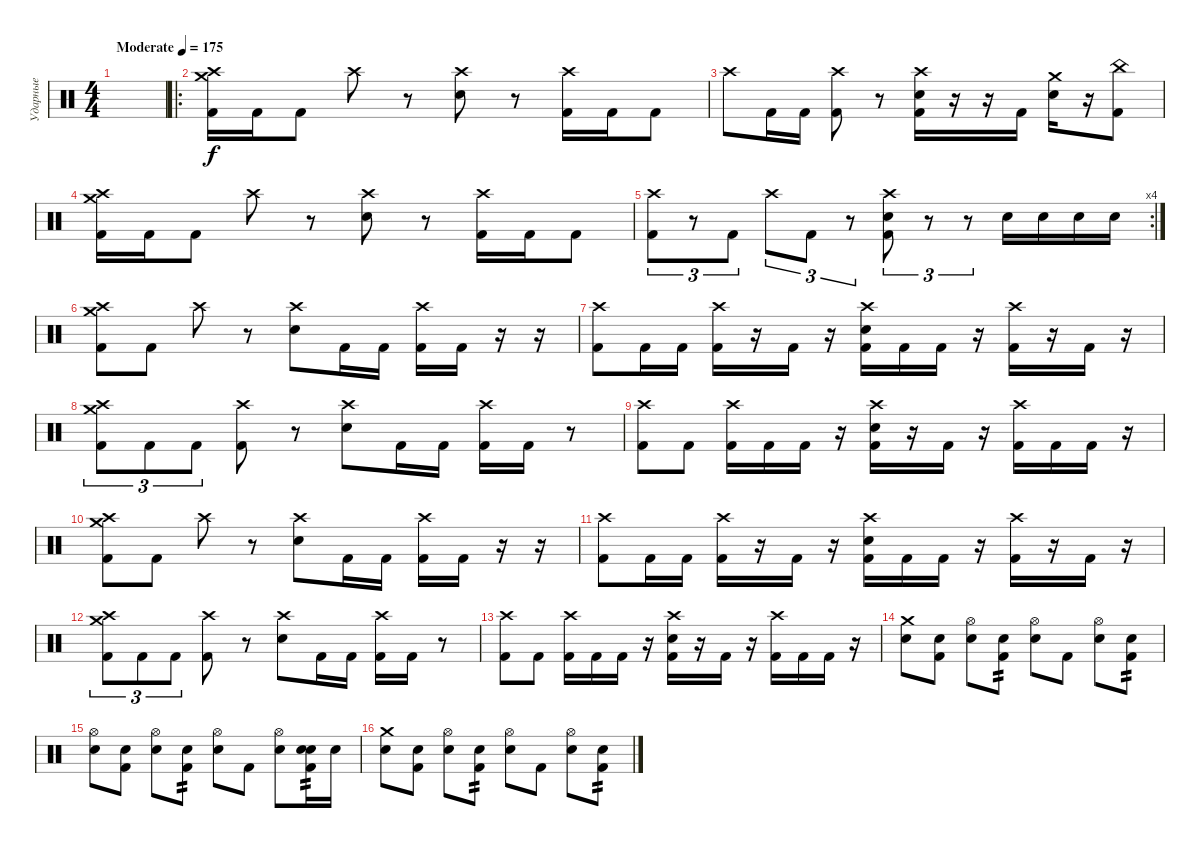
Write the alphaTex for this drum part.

\track ("Ударные" "Ударные") {instrument percussion}
\staff {score}
\articulation defaults
\ts (4 4)
\tempo (175 "Moderate")
\clef neutral
\ks c
|
\ro
("Crash medium (hit)" "Crash high (hit)" "Kick (hit) 2").16 "Kick (hit) 2".16 "Kick (hit) 2".8 "Crash high (hit)".8 r.8 ("Crash high (hit)" "Snare (hit) 2").8 r.8 ("Crash high (hit)" "Kick (hit) 2").16 "Kick (hit) 2".16 "Kick (hit) 2".8 |
"Crash high (hit)".8 "Kick (hit) 2".16 "Kick (hit) 2".16 ("Crash high (hit)" "Kick (hit) 2").8 r.8 ("Crash high (hit)" "Snare (hit) 2" "Kick (hit) 2").16 r.16 r.16 "Kick (hit) 2".16 ("Crash medium (hit)" "Snare (hit) 2").16 r.16 ("China (hit)" "Kick (hit) 2").8 |
("Crash medium (hit)" "Crash high (hit)" "Kick (hit) 2").16 "Kick (hit) 2".16 "Kick (hit) 2".8 "Crash high (hit)".8 r.8 ("Crash high (hit)" "Snare (hit) 2").8 r.8 ("Crash high (hit)" "Kick (hit) 2").16 "Kick (hit) 2".16 "Kick (hit) 2".8 |
\rc 4
("Crash high (hit)" "Kick (hit) 2").8{tu (3 2)} r.8{tu (3 2)} "Kick (hit) 2".8{tu (3 2)} "Crash high (hit)".8{tu (3 2)} "Kick (hit) 2".8{tu (3 2)} r.8{tu (3 2)} ("Crash high (hit)" "Snare (hit) 2" "Kick (hit) 2").8{tu (3 2)} r.8{tu (3 2)} r.8{tu (3 2)} "Snare (hit) 2".16 "Snare (hit) 2".16 "Snare (hit) 2".16 "Snare (hit) 2".16 |
("Crash high (hit)" "Crash medium (hit)" "Kick (hit) 2").8 "Kick (hit) 2".8 "Crash high (hit)".8 r.8 ("Crash high (hit)" "Snare (hit) 2").8 "Kick (hit) 2".16 "Kick (hit) 2".16 ("Crash high (hit)" "Kick (hit) 2").16 "Kick (hit) 2".16 r.16 r.16 |
("Crash high (hit)" "Kick (hit) 2").8 "Kick (hit) 2".16 "Kick (hit) 2".16 ("Crash high (hit)" "Kick (hit) 2").16 r.16 "Kick (hit) 2".16 r.16 ("Crash high (hit)" "Snare (hit) 2" "Kick (hit) 2").16 "Kick (hit) 2".16 "Kick (hit) 2".16 r.16 ("Crash high (hit)" "Kick (hit) 2").16 r.16 "Kick (hit) 2".16 r.16 |
("Crash medium (hit)" "Crash high (hit)" "Kick (hit) 2").8{tu (3 2)} "Kick (hit) 2".8{tu (3 2)} "Kick (hit) 2".8{tu (3 2)} ("Crash high (hit)" "Kick (hit) 2").8 r.8 ("Crash high (hit)" "Snare (hit) 2").8 "Kick (hit) 2".16 "Kick (hit) 2".16 ("Crash high (hit)" "Kick (hit) 2").16 "Kick (hit) 2".16 r.8 |
("Crash high (hit)" "Kick (hit) 2").8 "Kick (hit) 2".8 ("Crash high (hit)" "Kick (hit) 2").16 "Kick (hit) 2".16 "Kick (hit) 2".16 r.16 ("Crash high (hit)" "Snare (hit) 2" "Kick (hit) 2").16 r.16 "Kick (hit) 2".16 r.16 ("Crash high (hit)" "Kick (hit) 2").16 "Kick (hit) 2".16 "Kick (hit) 2".16 r.16 |
("Crash high (hit)" "Crash medium (hit)" "Kick (hit) 2").8 "Kick (hit) 2".8 "Crash high (hit)".8 r.8 ("Crash high (hit)" "Snare (hit) 2").8 "Kick (hit) 2".16 "Kick (hit) 2".16 ("Crash high (hit)" "Kick (hit) 2").16 "Kick (hit) 2".16 r.16 r.16 |
("Crash high (hit)" "Kick (hit) 2").8 "Kick (hit) 2".16 "Kick (hit) 2".16 ("Crash high (hit)" "Kick (hit) 2").16 r.16 "Kick (hit) 2".16 r.16 ("Crash high (hit)" "Snare (hit) 2" "Kick (hit) 2").16 "Kick (hit) 2".16 "Kick (hit) 2".16 r.16 ("Crash high (hit)" "Kick (hit) 2").16 r.16 "Kick (hit) 2".16 r.16 |
("Crash medium (hit)" "Crash high (hit)" "Kick (hit) 2").8{tu (3 2)} "Kick (hit) 2".8{tu (3 2)} "Kick (hit) 2".8{tu (3 2)} ("Crash high (hit)" "Kick (hit) 2").8 r.8 ("Crash high (hit)" "Snare (hit) 2").8 "Kick (hit) 2".16 "Kick (hit) 2".16 ("Crash high (hit)" "Kick (hit) 2").16 "Kick (hit) 2".16 r.8 |
("Crash high (hit)" "Kick (hit) 2").8 "Kick (hit) 2".8 ("Crash high (hit)" "Kick (hit) 2").16 "Kick (hit) 2".16 "Kick (hit) 2".16 r.16 ("Crash high (hit)" "Snare (hit) 2" "Kick (hit) 2").16 r.16 "Kick (hit) 2".16 r.16 ("Crash high (hit)" "Kick (hit) 2").16 "Kick (hit) 2".16 "Kick (hit) 2".16 r.16 |
("Crash medium (hit)" "Snare (hit) 2").8 ("Snare (hit)" "Kick (hit) 2").8 ("Hi-Hat (open)" "Snare (hit) 2").8 ("Snare (hit)" "Kick (hit) 2").8{tp 2} ("Hi-Hat (open)" "Snare (hit) 2").8 "Kick (hit) 2".8 ("Hi-Hat (open)" "Snare (hit) 2").8 ("Snare (hit)" "Kick (hit) 2").8{tp 2} |
("Hi-Hat (open)" "Snare (hit) 2").8 ("Snare (hit)" "Kick (hit) 2").8 ("Hi-Hat (open)" "Snare (hit) 2").8 ("Snare (hit)" "Kick (hit) 2").8{tp 2} ("Hi-Hat (open)" "Snare (hit) 2").8 "Kick (hit) 2".8 ("Hi-Hat (open)" "Snare (hit) 2").8 ("Snare (hit)" "Snare (hit) 2" "Kick (hit) 2").16{tp 2} "Snare (hit) 2".16 |
("Crash medium (hit)" "Snare (hit) 2").8 ("Snare (hit)" "Kick (hit) 2").8 ("Hi-Hat (open)" "Snare (hit) 2").8 ("Snare (hit)" "Kick (hit) 2").8{tp 2} ("Hi-Hat (open)" "Snare (hit) 2").8 "Kick (hit) 2".8 ("Hi-Hat (open)" "Snare (hit) 2").8 ("Snare (hit)" "Kick (hit) 2").8{tp 2}
